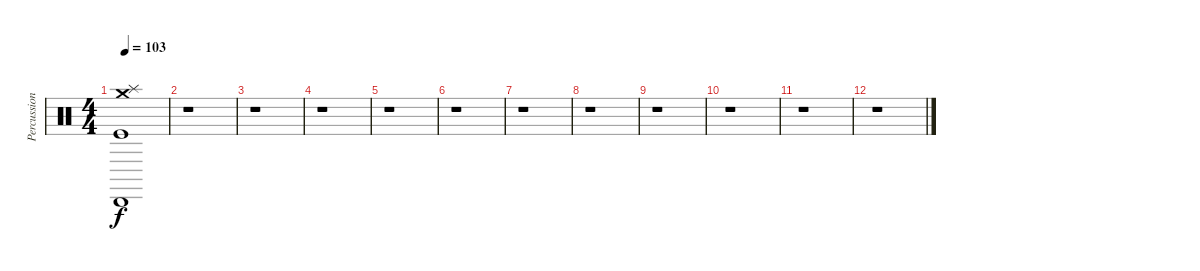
\track ("Percussion" "Percussion") {instrument percussion}
\staff {score}
\articulation defaults
\ts (4 4)
\tempo 103
\clef neutral
\ks c
("Cabasa (hit)" "Kick (hit)" "Crash medium (hit)" "Splash (hit)").1{dy f} |
r.1 |
r.1 |
r.1 |
r.1 |
r.1 |
r.1 |
r.1 |
r.1 |
r.1 |
r.1 |
r.1
